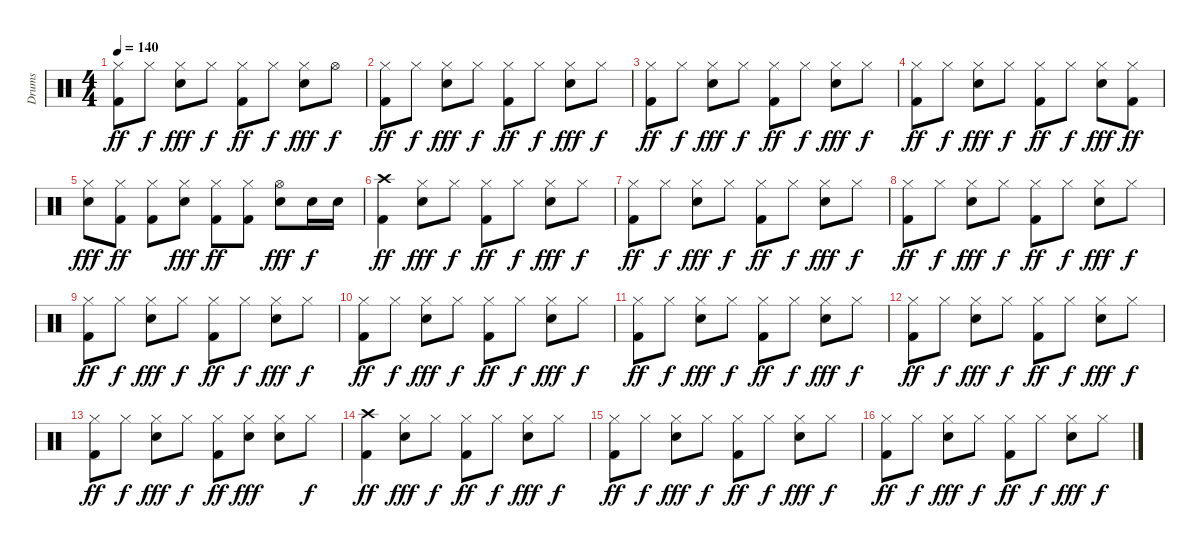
\track ("Drums" "Drums") {instrument percussion}
\staff {score}
\articulation defaults
\ts (4 4)
\tempo 140
\clef neutral
\ks c
("Hi-Hat (closed)" "Kick (hit) 2").8{dy ff} "Hi-Hat (closed)".8{dy f} ("Hi-Hat (closed)" "Snare (hit) 2").8{dy fff} "Hi-Hat (closed)".8{dy f} ("Hi-Hat (closed)" "Kick (hit) 2").8{dy ff} "Hi-Hat (closed)".8{dy f} ("Hi-Hat (closed)" "Snare (hit) 2").8{dy fff} "Hi-Hat (open)".8{dy f} |
("Hi-Hat (closed)" "Kick (hit) 2").8{dy ff} "Hi-Hat (closed)".8{dy f} ("Hi-Hat (closed)" "Snare (hit) 2").8{dy fff} "Hi-Hat (closed)".8{dy f} ("Hi-Hat (closed)" "Kick (hit) 2").8{dy ff} "Hi-Hat (closed)".8{dy f} ("Hi-Hat (closed)" "Snare (hit) 2").8{dy fff} "Hi-Hat (closed)".8{dy f} |
("Hi-Hat (closed)" "Kick (hit) 2").8{dy ff} "Hi-Hat (closed)".8{dy f} ("Hi-Hat (closed)" "Snare (hit) 2").8{dy fff} "Hi-Hat (closed)".8{dy f} ("Hi-Hat (closed)" "Kick (hit) 2").8{dy ff} "Hi-Hat (closed)".8{dy f} ("Hi-Hat (closed)" "Snare (hit) 2").8{dy fff} "Hi-Hat (closed)".8{dy f} |
("Hi-Hat (closed)" "Kick (hit) 2").8{dy ff} "Hi-Hat (closed)".8{dy f} ("Hi-Hat (closed)" "Snare (hit) 2").8{dy fff} "Hi-Hat (closed)".8{dy f} ("Hi-Hat (closed)" "Kick (hit) 2").8{dy ff} "Hi-Hat (closed)".8{dy f} ("Hi-Hat (closed)" "Snare (hit) 2").8{dy fff} ("Hi-Hat (closed)" "Kick (hit) 2").8{dy ff} |
("Hi-Hat (closed)" "Snare (hit) 2").8{dy fff} ("Hi-Hat (closed)" "Kick (hit) 2").8{dy ff} ("Hi-Hat (closed)" "Kick (hit) 2").8 ("Hi-Hat (closed)" "Snare (hit) 2").8{dy fff} ("Hi-Hat (closed)" "Kick (hit) 2").8{dy ff} ("Hi-Hat (closed)" "Kick (hit) 2").8 ("Hi-Hat (open)" "Snare (hit) 2").8{dy fff} "Snare (hit) 2".16{dy f} "Snare (hit) 2".16 |
("Crash high (hit)" "Kick (hit) 2").4{dy ff} ("Hi-Hat (closed)" "Snare (hit) 2").8{dy fff} "Hi-Hat (closed)".8{dy f} ("Hi-Hat (closed)" "Kick (hit) 2").8{dy ff} "Hi-Hat (closed)".8{dy f} ("Hi-Hat (closed)" "Snare (hit) 2").8{dy fff} "Hi-Hat (closed)".8{dy f} |
("Hi-Hat (closed)" "Kick (hit) 2").8{dy ff} "Hi-Hat (closed)".8{dy f} ("Hi-Hat (closed)" "Snare (hit) 2").8{dy fff} "Hi-Hat (closed)".8{dy f} ("Hi-Hat (closed)" "Kick (hit) 2").8{dy ff} "Hi-Hat (closed)".8{dy f} ("Hi-Hat (closed)" "Snare (hit) 2").8{dy fff} "Hi-Hat (closed)".8{dy f} |
("Hi-Hat (closed)" "Kick (hit) 2").8{dy ff} "Hi-Hat (closed)".8{dy f} ("Hi-Hat (closed)" "Snare (hit) 2").8{dy fff} "Hi-Hat (closed)".8{dy f} ("Hi-Hat (closed)" "Kick (hit) 2").8{dy ff} "Hi-Hat (closed)".8{dy f} ("Hi-Hat (closed)" "Snare (hit) 2").8{dy fff} "Hi-Hat (closed)".8{dy f} |
("Hi-Hat (closed)" "Kick (hit) 2").8{dy ff} "Hi-Hat (closed)".8{dy f} ("Hi-Hat (closed)" "Snare (hit) 2").8{dy fff} "Hi-Hat (closed)".8{dy f} ("Hi-Hat (closed)" "Kick (hit) 2").8{dy ff} "Hi-Hat (closed)".8{dy f} ("Hi-Hat (closed)" "Snare (hit) 2").8{dy fff} "Hi-Hat (closed)".8{dy f} |
("Hi-Hat (closed)" "Kick (hit) 2").8{dy ff} "Hi-Hat (closed)".8{dy f} ("Hi-Hat (closed)" "Snare (hit) 2").8{dy fff} "Hi-Hat (closed)".8{dy f} ("Hi-Hat (closed)" "Kick (hit) 2").8{dy ff} "Hi-Hat (closed)".8{dy f} ("Hi-Hat (closed)" "Snare (hit) 2").8{dy fff} "Hi-Hat (closed)".8{dy f} |
("Hi-Hat (closed)" "Kick (hit) 2").8{dy ff} "Hi-Hat (closed)".8{dy f} ("Hi-Hat (closed)" "Snare (hit) 2").8{dy fff} "Hi-Hat (closed)".8{dy f} ("Hi-Hat (closed)" "Kick (hit) 2").8{dy ff} "Hi-Hat (closed)".8{dy f} ("Hi-Hat (closed)" "Snare (hit) 2").8{dy fff} "Hi-Hat (closed)".8{dy f} |
("Hi-Hat (closed)" "Kick (hit) 2").8{dy ff} "Hi-Hat (closed)".8{dy f} ("Hi-Hat (closed)" "Snare (hit) 2").8{dy fff} "Hi-Hat (closed)".8{dy f} ("Hi-Hat (closed)" "Kick (hit) 2").8{dy ff} "Hi-Hat (closed)".8{dy f} ("Hi-Hat (closed)" "Snare (hit) 2").8{dy fff} "Hi-Hat (closed)".8{dy f} |
("Hi-Hat (closed)" "Kick (hit) 2").8{dy ff} "Hi-Hat (closed)".8{dy f} ("Hi-Hat (closed)" "Snare (hit) 2").8{dy fff} "Hi-Hat (closed)".8{dy f} ("Hi-Hat (closed)" "Kick (hit) 2").8{dy ff} ("Hi-Hat (closed)" "Snare (hit) 2").8{dy fff} ("Hi-Hat (closed)" "Snare (hit) 2").8 "Hi-Hat (closed)".8{dy f} |
("Crash high (hit)" "Kick (hit) 2").4{dy ff} ("Hi-Hat (closed)" "Snare (hit) 2").8{dy fff} "Hi-Hat (closed)".8{dy f} ("Hi-Hat (closed)" "Kick (hit) 2").8{dy ff} "Hi-Hat (closed)".8{dy f} ("Hi-Hat (closed)" "Snare (hit) 2").8{dy fff} "Hi-Hat (closed)".8{dy f} |
("Hi-Hat (closed)" "Kick (hit) 2").8{dy ff} "Hi-Hat (closed)".8{dy f} ("Hi-Hat (closed)" "Snare (hit) 2").8{dy fff} "Hi-Hat (closed)".8{dy f} ("Hi-Hat (closed)" "Kick (hit) 2").8{dy ff} "Hi-Hat (closed)".8{dy f} ("Hi-Hat (closed)" "Snare (hit) 2").8{dy fff} "Hi-Hat (closed)".8{dy f} |
("Hi-Hat (closed)" "Kick (hit) 2").8{dy ff} "Hi-Hat (closed)".8{dy f} ("Hi-Hat (closed)" "Snare (hit) 2").8{dy fff} "Hi-Hat (closed)".8{dy f} ("Hi-Hat (closed)" "Kick (hit) 2").8{dy ff} "Hi-Hat (closed)".8{dy f} ("Hi-Hat (closed)" "Snare (hit) 2").8{dy fff} "Hi-Hat (closed)".8{dy f}
